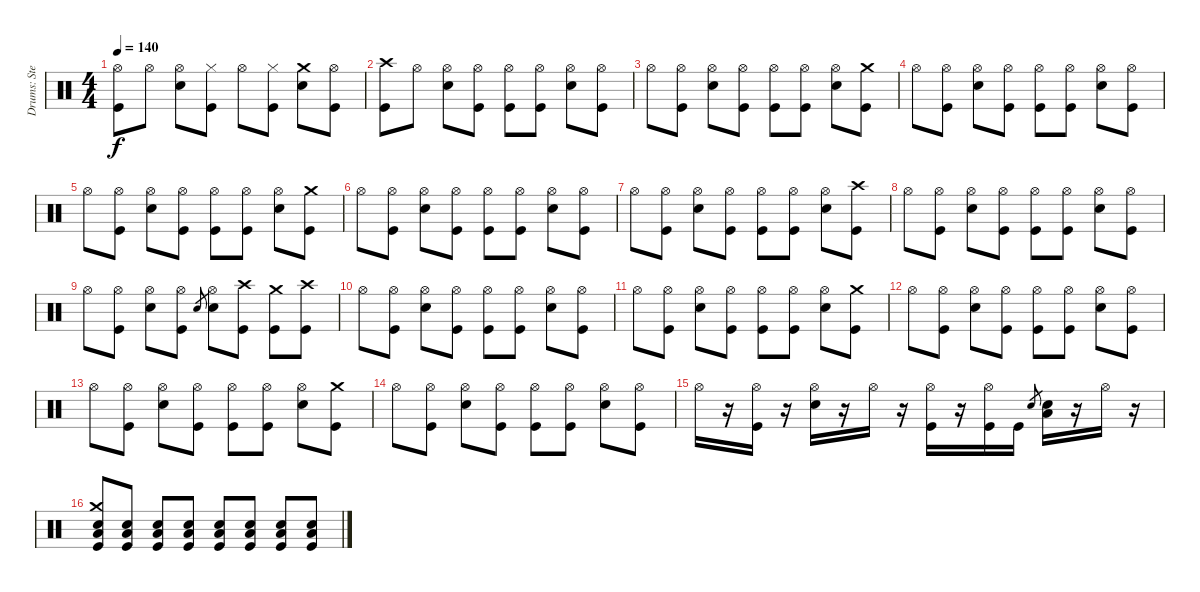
\track ("Drums: Steven Adler" "Drums: Ste") {instrument percussion}
\staff {score}
\articulation defaults
\ts (4 4)
\tempo 140
\clef neutral
\ks c
("Hi-Hat (open)" "Kick (hit)").8{dy f} "Hi-Hat (open)".8 ("Hi-Hat (open)" "Electric Snare (hit)").8 ("Hi-Hat (closed)" "Kick (hit)").8 "Hi-Hat (open)".8 ("Hi-Hat (closed)" "Kick (hit)").8 ("Crash medium (hit)" "Electric Snare (hit)").8 ("Hi-Hat (open)" "Kick (hit)").8 |
("Crash high (hit)" "Kick (hit)").8 "Hi-Hat (open)".8 ("Hi-Hat (open)" "Electric Snare (hit)").8 ("Hi-Hat (open)" "Kick (hit)").8 ("Hi-Hat (open)" "Kick (hit)").8 ("Hi-Hat (open)" "Kick (hit)").8 ("Hi-Hat (open)" "Electric Snare (hit)").8 ("Hi-Hat (open)" "Kick (hit)").8 |
"Hi-Hat (open)".8 ("Hi-Hat (open)" "Kick (hit)").8 ("Hi-Hat (open)" "Electric Snare (hit)").8 ("Hi-Hat (open)" "Kick (hit)").8 ("Hi-Hat (open)" "Kick (hit)").8 ("Hi-Hat (open)" "Kick (hit)").8 ("Hi-Hat (open)" "Electric Snare (hit)").8 ("Crash medium (hit)" "Kick (hit)").8 |
"Hi-Hat (open)".8 ("Hi-Hat (open)" "Kick (hit)").8 ("Hi-Hat (open)" "Electric Snare (hit)").8 ("Hi-Hat (open)" "Kick (hit)").8 ("Hi-Hat (open)" "Kick (hit)").8 ("Hi-Hat (open)" "Kick (hit)").8 ("Hi-Hat (open)" "Electric Snare (hit)").8 ("Hi-Hat (open)" "Kick (hit)").8 |
"Hi-Hat (open)".8 ("Hi-Hat (open)" "Kick (hit)").8 ("Hi-Hat (open)" "Electric Snare (hit)").8 ("Hi-Hat (open)" "Kick (hit)").8 ("Hi-Hat (open)" "Kick (hit)").8 ("Hi-Hat (open)" "Kick (hit)").8 ("Hi-Hat (open)" "Electric Snare (hit)").8 ("Crash medium (hit)" "Kick (hit)").8 |
"Hi-Hat (open)".8 ("Hi-Hat (open)" "Kick (hit)").8 ("Hi-Hat (open)" "Electric Snare (hit)").8 ("Hi-Hat (open)" "Kick (hit)").8 ("Hi-Hat (open)" "Kick (hit)").8 ("Hi-Hat (open)" "Kick (hit)").8 ("Hi-Hat (open)" "Electric Snare (hit)").8 ("Hi-Hat (open)" "Kick (hit)").8 |
"Hi-Hat (open)".8 ("Hi-Hat (open)" "Kick (hit)").8 ("Hi-Hat (open)" "Electric Snare (hit)").8 ("Hi-Hat (open)" "Kick (hit)").8 ("Hi-Hat (open)" "Kick (hit)").8 ("Hi-Hat (open)" "Kick (hit)").8 ("Hi-Hat (open)" "Electric Snare (hit)").8 ("Crash high (hit)" "Kick (hit)").8 |
"Hi-Hat (open)".8 ("Hi-Hat (open)" "Kick (hit)").8 ("Hi-Hat (open)" "Electric Snare (hit)").8 ("Hi-Hat (open)" "Kick (hit)").8 ("Hi-Hat (open)" "Kick (hit)").8 ("Hi-Hat (open)" "Kick (hit)").8 ("Hi-Hat (open)" "Electric Snare (hit)").8 ("Hi-Hat (open)" "Kick (hit)").8 |
"Hi-Hat (open)".8 ("Hi-Hat (open)" "Kick (hit)").8 ("Hi-Hat (open)" "Electric Snare (hit)").8 ("Hi-Hat (open)" "Kick (hit)").8 "Electric Snare (hit)".8{gr} ("Hi-Hat (open)" "Electric Snare (hit)").8 ("Crash high (hit)" "Kick (hit)").8 ("Crash medium (hit)" "Kick (hit)").8 ("Crash high (hit)" "Kick (hit)").8 |
"Hi-Hat (open)".8 ("Hi-Hat (open)" "Kick (hit)").8 ("Hi-Hat (open)" "Electric Snare (hit)").8 ("Hi-Hat (open)" "Kick (hit)").8 ("Hi-Hat (open)" "Kick (hit)").8 ("Hi-Hat (open)" "Kick (hit)").8 ("Hi-Hat (open)" "Electric Snare (hit)").8 ("Hi-Hat (open)" "Kick (hit)").8 |
"Hi-Hat (open)".8 ("Hi-Hat (open)" "Kick (hit)").8 ("Hi-Hat (open)" "Electric Snare (hit)").8 ("Hi-Hat (open)" "Kick (hit)").8 ("Hi-Hat (open)" "Kick (hit)").8 ("Hi-Hat (open)" "Kick (hit)").8 ("Hi-Hat (open)" "Electric Snare (hit)").8 ("Crash medium (hit)" "Kick (hit)").8 |
"Hi-Hat (open)".8 ("Hi-Hat (open)" "Kick (hit)").8 ("Hi-Hat (open)" "Electric Snare (hit)").8 ("Hi-Hat (open)" "Kick (hit)").8 ("Hi-Hat (open)" "Kick (hit)").8 ("Hi-Hat (open)" "Kick (hit)").8 ("Hi-Hat (open)" "Electric Snare (hit)").8 ("Hi-Hat (open)" "Kick (hit)").8 |
"Hi-Hat (open)".8 ("Hi-Hat (open)" "Kick (hit)").8 ("Hi-Hat (open)" "Electric Snare (hit)").8 ("Hi-Hat (open)" "Kick (hit)").8 ("Hi-Hat (open)" "Kick (hit)").8 ("Hi-Hat (open)" "Kick (hit)").8 ("Hi-Hat (open)" "Electric Snare (hit)").8 ("Crash medium (hit)" "Kick (hit)").8 |
"Hi-Hat (open)".8 ("Hi-Hat (open)" "Kick (hit)").8 ("Hi-Hat (open)" "Electric Snare (hit)").8 ("Hi-Hat (open)" "Kick (hit)").8 ("Hi-Hat (open)" "Kick (hit)").8 ("Hi-Hat (open)" "Kick (hit)").8 ("Hi-Hat (open)" "Electric Snare (hit)").8 ("Hi-Hat (open)" "Kick (hit)").8 |
"Hi-Hat (open)".16 r.16 ("Hi-Hat (open)" "Kick (hit)").16 r.16 ("Hi-Hat (open)" "Electric Snare (hit)").16 r.16 "Hi-Hat (open)".16 r.16 ("Hi-Hat (open)" "Kick (hit)").16 r.16 ("Hi-Hat (open)" "Kick (hit)").16 "Kick (hit)".16 "Electric Snare (hit)".8{gr} ("Electric Snare (hit)" "Low Floor Tom (hit)").16 r.16 "Hi-Hat (open)".16 r.16 |
("Crash medium (hit)" "Electric Snare (hit)" "Low Floor Tom (hit)" "Kick (hit)").8 ("Electric Snare (hit)" "Low Floor Tom (hit)" "Kick (hit)").8 ("Electric Snare (hit)" "Low Floor Tom (hit)" "Kick (hit)").8 ("Electric Snare (hit)" "Low Floor Tom (hit)" "Kick (hit)").8 ("Electric Snare (hit)" "Low Floor Tom (hit)" "Kick (hit)").8 ("Electric Snare (hit)" "Low Floor Tom (hit)" "Kick (hit)").8 ("Electric Snare (hit)" "Low Floor Tom (hit)" "Kick (hit)").8 ("Electric Snare (hit)" "Low Floor Tom (hit)" "Kick (hit)").8
